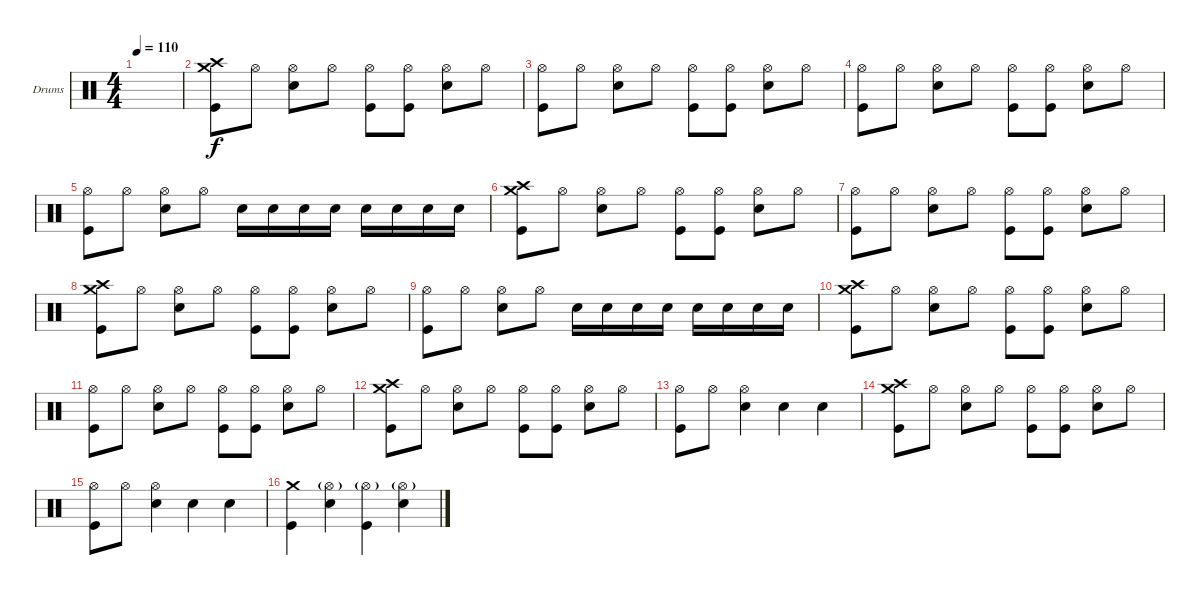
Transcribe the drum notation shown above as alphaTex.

\defaultSystemsLayout 4
\bracketExtendMode groupsimilarinstruments
\firstSystemTrackNameOrientation horizontal
\otherSystemsTrackNameOrientation horizontal
\track ("Drumkit" "Drums") {instrument percussion}
\staff {score}
\articulation defaults
\ts (4 4)
\tempo 110
\clef neutral
\scale
0.333333
\ks c
|
\scale
0.333333 ("Crash medium (hit)" "Crash high (hit)" "Kick (hit)").8{dy f} "Hi-Hat (open)".8 ("Hi-Hat (open)" "Snare (hit) 2").8 "Hi-Hat (open)".8 ("Hi-Hat (open)" "Kick (hit)").8 ("Hi-Hat (open)" "Kick (hit)").8 ("Hi-Hat (open)" "Snare (hit) 2").8 "Hi-Hat (open)".8 |
\scale
0.333333 ("Hi-Hat (open)" "Kick (hit)").8 "Hi-Hat (open)".8 ("Hi-Hat (open)" "Snare (hit) 2").8 "Hi-Hat (open)".8 ("Hi-Hat (open)" "Kick (hit)").8 ("Hi-Hat (open)" "Kick (hit)").8 ("Hi-Hat (open)" "Snare (hit) 2").8 "Hi-Hat (open)".8 |
\scale
0.333333 ("Hi-Hat (open)" "Kick (hit)").8 "Hi-Hat (open)".8 ("Hi-Hat (open)" "Snare (hit) 2").8 "Hi-Hat (open)".8 ("Hi-Hat (open)" "Kick (hit)").8 ("Hi-Hat (open)" "Kick (hit)").8 ("Hi-Hat (open)" "Snare (hit) 2").8 "Hi-Hat (open)".8 |
\scale
0.333333 ("Hi-Hat (open)" "Kick (hit)").8 "Hi-Hat (open)".8 ("Hi-Hat (open)" "Snare (hit) 2").8 "Hi-Hat (open)".8 "Snare (hit) 2".16 "Snare (hit) 2".16 "Snare (hit) 2".16 "Snare (hit) 2".16 "Snare (hit) 2".16 "Snare (hit) 2".16 "Snare (hit) 2".16 "Snare (hit) 2".16 |
\scale
0.333333 ("Crash medium (hit)" "Crash high (hit)" "Kick (hit)").8 "Hi-Hat (open)".8 ("Hi-Hat (open)" "Snare (hit) 2").8 "Hi-Hat (open)".8 ("Hi-Hat (open)" "Kick (hit)").8 ("Hi-Hat (open)" "Kick (hit)").8 ("Hi-Hat (open)" "Snare (hit) 2").8 "Hi-Hat (open)".8 |
\scale
0.333333 ("Hi-Hat (open)" "Kick (hit)").8 "Hi-Hat (open)".8 ("Hi-Hat (open)" "Snare (hit) 2").8 "Hi-Hat (open)".8 ("Hi-Hat (open)" "Kick (hit)").8 ("Hi-Hat (open)" "Kick (hit)").8 ("Hi-Hat (open)" "Snare (hit) 2").8 "Hi-Hat (open)".8 |
\scale
0.333333 ("Crash medium (hit)" "Crash high (hit)" "Kick (hit)").8 "Hi-Hat (open)".8 ("Hi-Hat (open)" "Snare (hit) 2").8 "Hi-Hat (open)".8 ("Hi-Hat (open)" "Kick (hit)").8 ("Hi-Hat (open)" "Kick (hit)").8 ("Hi-Hat (open)" "Snare (hit) 2").8 "Hi-Hat (open)".8 |
\scale
0.333333 ("Hi-Hat (open)" "Kick (hit)").8 "Hi-Hat (open)".8 ("Hi-Hat (open)" "Snare (hit) 2").8 "Hi-Hat (open)".8 "Snare (hit) 2".16 "Snare (hit) 2".16 "Snare (hit) 2".16 "Snare (hit) 2".16 "Snare (hit) 2".16 "Snare (hit) 2".16 "Snare (hit) 2".16 "Snare (hit) 2".16 |
\scale
0.333333 ("Crash medium (hit)" "Crash high (hit)" "Kick (hit)").8 "Hi-Hat (open)".8 ("Hi-Hat (open)" "Snare (hit) 2").8 "Hi-Hat (open)".8 ("Hi-Hat (open)" "Kick (hit)").8 ("Hi-Hat (open)" "Kick (hit)").8 ("Hi-Hat (open)" "Snare (hit) 2").8 "Hi-Hat (open)".8 |
("Hi-Hat (open)" "Kick (hit)").8 "Hi-Hat (open)".8 ("Hi-Hat (open)" "Snare (hit) 2").8 "Hi-Hat (open)".8 ("Hi-Hat (open)" "Kick (hit)").8 ("Hi-Hat (open)" "Kick (hit)").8 ("Hi-Hat (open)" "Snare (hit) 2").8 "Hi-Hat (open)".8 |
("Crash medium (hit)" "Crash high (hit)" "Kick (hit)").8 "Hi-Hat (open)".8 ("Hi-Hat (open)" "Snare (hit) 2").8 "Hi-Hat (open)".8 ("Hi-Hat (open)" "Kick (hit)").8 ("Hi-Hat (open)" "Kick (hit)").8 ("Hi-Hat (open)" "Snare (hit) 2").8 "Hi-Hat (open)".8 |
("Hi-Hat (open)" "Kick (hit)").8 "Hi-Hat (open)".8 ("Hi-Hat (open)" "Snare (hit) 2").4 "Snare (hit) 2".4 "Snare (hit) 2".4 |
("Crash medium (hit)" "Crash high (hit)" "Kick (hit)").8 "Hi-Hat (open)".8 ("Hi-Hat (open)" "Snare (hit) 2").8 "Hi-Hat (open)".8 ("Hi-Hat (open)" "Kick (hit)").8 ("Hi-Hat (open)" "Kick (hit)").8 ("Hi-Hat (open)" "Snare (hit) 2").8 "Hi-Hat (open)".8 |
("Hi-Hat (open)" "Kick (hit)").8 "Hi-Hat (open)".8 ("Hi-Hat (open)" "Snare (hit) 2").4 "Snare (hit) 2".4 "Snare (hit) 2".4 |
\scale
0.333333 ("Crash medium (hit)" "Kick (hit)").4 ("Hi-Hat (open)"{g} "Snare (hit) 2").4 ("Hi-Hat (open)"{g} "Kick (hit)").4 ("Hi-Hat (open)"{g} "Snare (hit) 2").4
